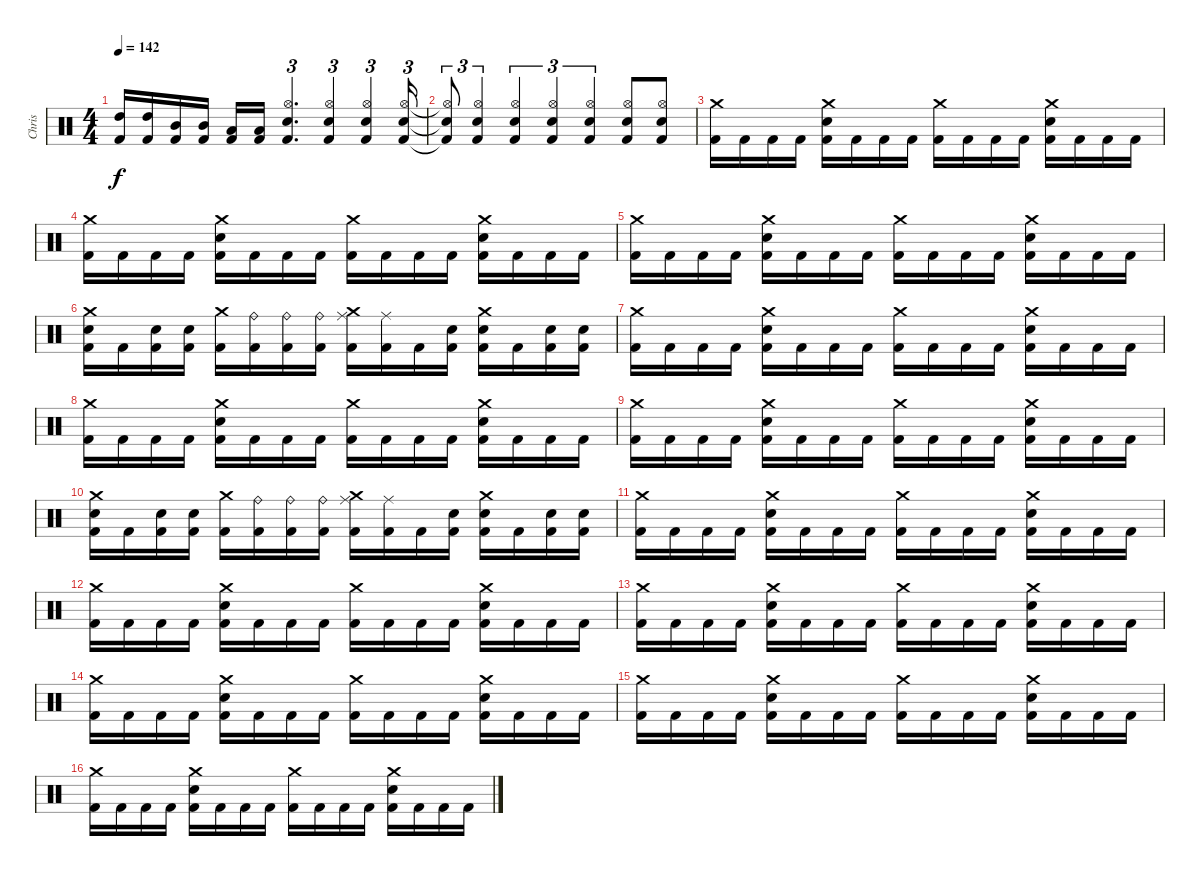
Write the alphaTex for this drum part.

\track ("Chris" "Chris") {instrument percussion}
\staff {score}
\articulation defaults
\ts (4 4)
\tempo 142
\clef neutral
\ks c
("High Tom (hit)" "Kick (hit) 2").16{dy f} ("High Tom (hit)" "Kick (hit) 2").16 ("Mid Tom (hit)" "Kick (hit) 2").16 ("Mid Tom (hit)" "Kick (hit) 2").16 ("Low Tom (hit)" "Kick (hit) 2").16 ("Low Tom (hit)" "Kick (hit) 2").16 ("Hi-Hat (open)" "Snare (hit) 2" "Kick (hit) 2").4{d tu (3 2)} ("Hi-Hat (open)" "Snare (hit) 2" "Kick (hit) 2").4{tu (3 2)} ("Hi-Hat (open)" "Snare (hit) 2" "Kick (hit) 2").4{tu (3 2)} ("Hi-Hat (open)" "Snare (hit) 2" "Kick (hit) 2").16{tu (3 2)} |
("Hi-Hat (open)"{t} "Snare (hit) 2"{t} "Kick (hit) 2"{t}).8{tu (3 2)} ("Hi-Hat (open)" "Snare (hit) 2" "Kick (hit) 2").4{tu (3 2)} ("Hi-Hat (open)" "Snare (hit) 2" "Kick (hit) 2").4{tu (3 2)} ("Hi-Hat (open)" "Snare (hit) 2" "Kick (hit) 2").4{tu (3 2)} ("Hi-Hat (open)" "Snare (hit) 2" "Kick (hit) 2").4{tu (3 2)} ("Hi-Hat (open)" "Snare (hit) 2" "Kick (hit) 2").8 ("Hi-Hat (open)" "Snare (hit) 2" "Kick (hit) 2").8 |
("Crash medium (hit)" "Kick (hit) 2").16 "Kick (hit) 2".16 "Kick (hit) 2".16 "Kick (hit) 2".16 ("Crash medium (hit)" "Snare (hit) 2" "Kick (hit) 2").16 "Kick (hit) 2".16 "Kick (hit) 2".16 "Kick (hit) 2".16 ("Crash medium (hit)" "Kick (hit) 2").16 "Kick (hit) 2".16 "Kick (hit) 2".16 "Kick (hit) 2".16 ("Crash medium (hit)" "Snare (hit) 2" "Kick (hit) 2").16 "Kick (hit) 2".16 "Kick (hit) 2".16 "Kick (hit) 2".16 |
("Crash medium (hit)" "Kick (hit) 2").16 "Kick (hit) 2".16 "Kick (hit) 2".16 "Kick (hit) 2".16 ("Crash medium (hit)" "Snare (hit) 2" "Kick (hit) 2").16 "Kick (hit) 2".16 "Kick (hit) 2".16 "Kick (hit) 2".16 ("Crash medium (hit)" "Kick (hit) 2").16 "Kick (hit) 2".16 "Kick (hit) 2".16 "Kick (hit) 2".16 ("Crash medium (hit)" "Snare (hit) 2" "Kick (hit) 2").16 "Kick (hit) 2".16 "Kick (hit) 2".16 "Kick (hit) 2".16 |
("Crash medium (hit)" "Kick (hit) 2").16 "Kick (hit) 2".16 "Kick (hit) 2".16 "Kick (hit) 2".16 ("Crash medium (hit)" "Snare (hit) 2" "Kick (hit) 2").16 "Kick (hit) 2".16 "Kick (hit) 2".16 "Kick (hit) 2".16 ("Crash medium (hit)" "Kick (hit) 2").16 "Kick (hit) 2".16 "Kick (hit) 2".16 "Kick (hit) 2".16 ("Crash medium (hit)" "Snare (hit) 2" "Kick (hit) 2").16 "Kick (hit) 2".16 "Kick (hit) 2".16 "Kick (hit) 2".16 |
("Crash medium (hit)" "Snare (hit) 2" "Kick (hit) 2").16 "Kick (hit) 2".16 ("Snare (hit) 2" "Kick (hit) 2").16 ("Snare (hit) 2" "Kick (hit) 2").16 ("Crash medium (hit)" "Kick (hit) 2").16 ("Ride (bell)" "Kick (hit) 2").16 ("Ride (bell)" "Kick (hit) 2").16 ("Ride (bell)" "Kick (hit) 2").16 ("Crash medium (hit)" "Ride (middle)" "Kick (hit) 2").16 ("Ride (middle)" "Kick (hit) 2").16 "Kick (hit) 2".16 ("Snare (hit) 2" "Kick (hit) 2").16 ("Crash medium (hit)" "Snare (hit) 2" "Kick (hit) 2").16 "Kick (hit) 2".16 ("Snare (hit) 2" "Kick (hit) 2").16 ("Snare (hit) 2" "Kick (hit) 2").16 |
("Crash medium (hit)" "Kick (hit) 2").16 "Kick (hit) 2".16 "Kick (hit) 2".16 "Kick (hit) 2".16 ("Crash medium (hit)" "Snare (hit) 2" "Kick (hit) 2").16 "Kick (hit) 2".16 "Kick (hit) 2".16 "Kick (hit) 2".16 ("Crash medium (hit)" "Kick (hit) 2").16 "Kick (hit) 2".16 "Kick (hit) 2".16 "Kick (hit) 2".16 ("Crash medium (hit)" "Snare (hit) 2" "Kick (hit) 2").16 "Kick (hit) 2".16 "Kick (hit) 2".16 "Kick (hit) 2".16 |
("Crash medium (hit)" "Kick (hit) 2").16 "Kick (hit) 2".16 "Kick (hit) 2".16 "Kick (hit) 2".16 ("Crash medium (hit)" "Snare (hit) 2" "Kick (hit) 2").16 "Kick (hit) 2".16 "Kick (hit) 2".16 "Kick (hit) 2".16 ("Crash medium (hit)" "Kick (hit) 2").16 "Kick (hit) 2".16 "Kick (hit) 2".16 "Kick (hit) 2".16 ("Crash medium (hit)" "Snare (hit) 2" "Kick (hit) 2").16 "Kick (hit) 2".16 "Kick (hit) 2".16 "Kick (hit) 2".16 |
("Crash medium (hit)" "Kick (hit) 2").16 "Kick (hit) 2".16 "Kick (hit) 2".16 "Kick (hit) 2".16 ("Crash medium (hit)" "Snare (hit) 2" "Kick (hit) 2").16 "Kick (hit) 2".16 "Kick (hit) 2".16 "Kick (hit) 2".16 ("Crash medium (hit)" "Kick (hit) 2").16 "Kick (hit) 2".16 "Kick (hit) 2".16 "Kick (hit) 2".16 ("Crash medium (hit)" "Snare (hit) 2" "Kick (hit) 2").16 "Kick (hit) 2".16 "Kick (hit) 2".16 "Kick (hit) 2".16 |
("Crash medium (hit)" "Snare (hit) 2" "Kick (hit) 2").16 "Kick (hit) 2".16 ("Snare (hit) 2" "Kick (hit) 2").16 ("Snare (hit) 2" "Kick (hit) 2").16 ("Crash medium (hit)" "Kick (hit) 2").16 ("Ride (bell)" "Kick (hit) 2").16 ("Ride (bell)" "Kick (hit) 2").16 ("Ride (bell)" "Kick (hit) 2").16 ("Crash medium (hit)" "Ride (middle)" "Kick (hit) 2").16 ("Ride (middle)" "Kick (hit) 2").16 "Kick (hit) 2".16 ("Snare (hit) 2" "Kick (hit) 2").16 ("Crash medium (hit)" "Snare (hit) 2" "Kick (hit) 2").16 "Kick (hit) 2".16 ("Snare (hit) 2" "Kick (hit) 2").16 ("Snare (hit) 2" "Kick (hit) 2").16 |
("Crash medium (hit)" "Kick (hit) 2").16 "Kick (hit) 2".16 "Kick (hit) 2".16 "Kick (hit) 2".16 ("Crash medium (hit)" "Snare (hit) 2" "Kick (hit) 2").16 "Kick (hit) 2".16 "Kick (hit) 2".16 "Kick (hit) 2".16 ("Crash medium (hit)" "Kick (hit) 2").16 "Kick (hit) 2".16 "Kick (hit) 2".16 "Kick (hit) 2".16 ("Crash medium (hit)" "Snare (hit) 2" "Kick (hit) 2").16 "Kick (hit) 2".16 "Kick (hit) 2".16 "Kick (hit) 2".16 |
("Crash medium (hit)" "Kick (hit) 2").16 "Kick (hit) 2".16 "Kick (hit) 2".16 "Kick (hit) 2".16 ("Crash medium (hit)" "Snare (hit) 2" "Kick (hit) 2").16 "Kick (hit) 2".16 "Kick (hit) 2".16 "Kick (hit) 2".16 ("Crash medium (hit)" "Kick (hit) 2").16 "Kick (hit) 2".16 "Kick (hit) 2".16 "Kick (hit) 2".16 ("Crash medium (hit)" "Snare (hit) 2" "Kick (hit) 2").16 "Kick (hit) 2".16 "Kick (hit) 2".16 "Kick (hit) 2".16 |
("Crash medium (hit)" "Kick (hit) 2").16 "Kick (hit) 2".16 "Kick (hit) 2".16 "Kick (hit) 2".16 ("Crash medium (hit)" "Snare (hit) 2" "Kick (hit) 2").16 "Kick (hit) 2".16 "Kick (hit) 2".16 "Kick (hit) 2".16 ("Crash medium (hit)" "Kick (hit) 2").16 "Kick (hit) 2".16 "Kick (hit) 2".16 "Kick (hit) 2".16 ("Crash medium (hit)" "Snare (hit) 2" "Kick (hit) 2").16 "Kick (hit) 2".16 "Kick (hit) 2".16 "Kick (hit) 2".16 |
("Crash medium (hit)" "Kick (hit) 2").16 "Kick (hit) 2".16 "Kick (hit) 2".16 "Kick (hit) 2".16 ("Crash medium (hit)" "Snare (hit) 2" "Kick (hit) 2").16 "Kick (hit) 2".16 "Kick (hit) 2".16 "Kick (hit) 2".16 ("Crash medium (hit)" "Kick (hit) 2").16 "Kick (hit) 2".16 "Kick (hit) 2".16 "Kick (hit) 2".16 ("Crash medium (hit)" "Snare (hit) 2" "Kick (hit) 2").16 "Kick (hit) 2".16 "Kick (hit) 2".16 "Kick (hit) 2".16 |
("Crash medium (hit)" "Kick (hit) 2").16 "Kick (hit) 2".16 "Kick (hit) 2".16 "Kick (hit) 2".16 ("Crash medium (hit)" "Snare (hit) 2" "Kick (hit) 2").16 "Kick (hit) 2".16 "Kick (hit) 2".16 "Kick (hit) 2".16 ("Crash medium (hit)" "Kick (hit) 2").16 "Kick (hit) 2".16 "Kick (hit) 2".16 "Kick (hit) 2".16 ("Crash medium (hit)" "Snare (hit) 2" "Kick (hit) 2").16 "Kick (hit) 2".16 "Kick (hit) 2".16 "Kick (hit) 2".16 |
("Crash medium (hit)" "Kick (hit) 2").16 "Kick (hit) 2".16 "Kick (hit) 2".16 "Kick (hit) 2".16 ("Crash medium (hit)" "Snare (hit) 2" "Kick (hit) 2").16 "Kick (hit) 2".16 "Kick (hit) 2".16 "Kick (hit) 2".16 ("Crash medium (hit)" "Kick (hit) 2").16 "Kick (hit) 2".16 "Kick (hit) 2".16 "Kick (hit) 2".16 ("Crash medium (hit)" "Snare (hit) 2" "Kick (hit) 2").16 "Kick (hit) 2".16 "Kick (hit) 2".16 "Kick (hit) 2".16
